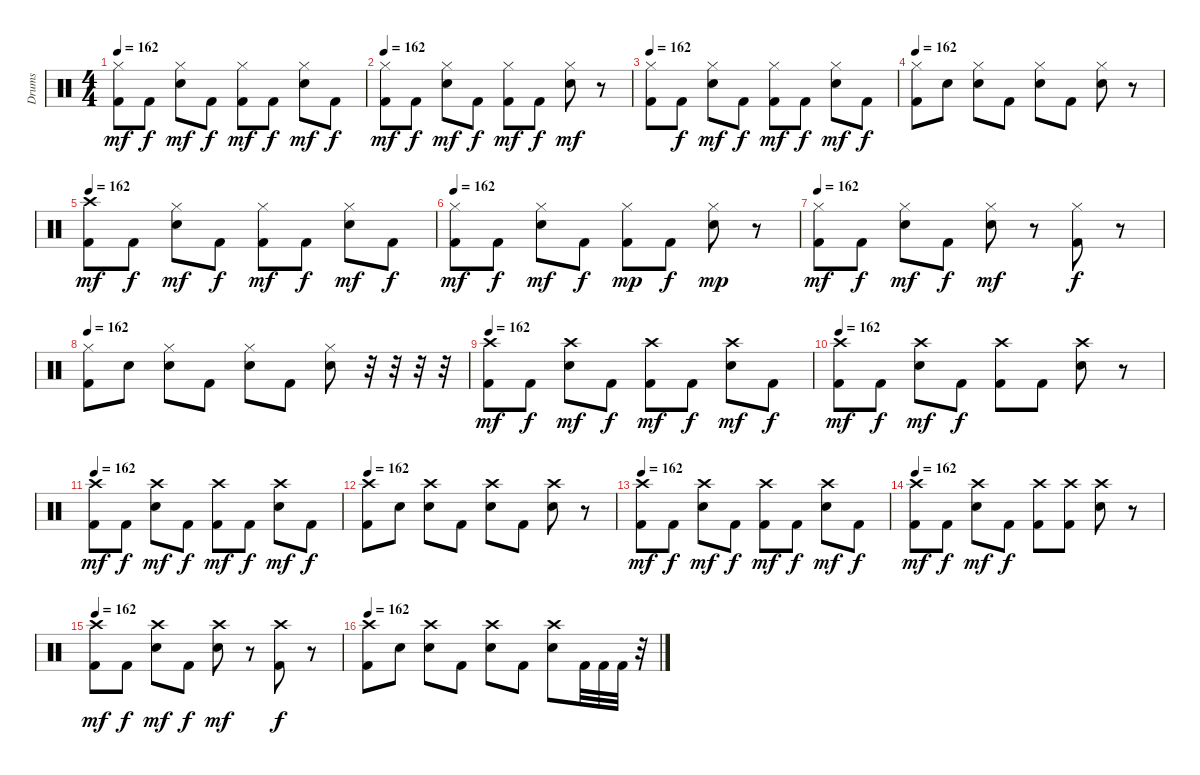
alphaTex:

\track ("Drums" "Drums") {instrument percussion}
\staff {score}
\articulation defaults
\ts (4 4)
\tempo 162
\clef neutral
\ks c
("Hi-Hat (closed)" "Kick (hit) 2").8{dy mf} "Kick (hit) 2".8{dy f} ("Hi-Hat (closed)" "Electric Snare (hit)").8{dy mf} "Kick (hit) 2".8{dy f} ("Hi-Hat (closed)" "Kick (hit) 2").8{dy mf} "Kick (hit) 2".8{dy f} ("Hi-Hat (closed)" "Electric Snare (hit)").8{dy mf} "Kick (hit) 2".8{dy f} |
\tempo 162
("Hi-Hat (closed)" "Kick (hit) 2").8{dy mf} "Kick (hit) 2".8{dy f} ("Hi-Hat (closed)" "Electric Snare (hit)").8{dy mf} "Kick (hit) 2".8{dy f} ("Hi-Hat (closed)" "Kick (hit) 2").8{dy mf} "Kick (hit) 2".8{dy f} ("Hi-Hat (closed)" "Electric Snare (hit)").8{dy mf} r.8 |
\tempo 162
("Hi-Hat (closed)" "Kick (hit) 2").8 "Kick (hit) 2".8{dy f} ("Hi-Hat (closed)" "Electric Snare (hit)").8{dy mf} "Kick (hit) 2".8{dy f} ("Hi-Hat (closed)" "Kick (hit) 2").8{dy mf} "Kick (hit) 2".8{dy f} ("Hi-Hat (closed)" "Electric Snare (hit)").8{dy mf} "Kick (hit) 2".8{dy f} |
\tempo 162
("Hi-Hat (closed)" "Kick (hit) 2").8 "Electric Snare (hit)".8 ("Hi-Hat (closed)" "Electric Snare (hit)").8 "Kick (hit) 2".8 ("Hi-Hat (closed)" "Electric Snare (hit)").8 "Kick (hit) 2".8 ("Hi-Hat (closed)" "Electric Snare (hit)").8 r.8 |
\tempo 162
("Crash high (hit)" "Kick (hit) 2").8{dy mf} "Kick (hit) 2".8{dy f} ("Hi-Hat (closed)" "Electric Snare (hit)").8{dy mf} "Kick (hit) 2".8{dy f} ("Hi-Hat (closed)" "Kick (hit) 2").8{dy mf} "Kick (hit) 2".8{dy f} ("Hi-Hat (closed)" "Electric Snare (hit)").8{dy mf} "Kick (hit) 2".8{dy f} |
\tempo 162
("Hi-Hat (closed)" "Kick (hit) 2").8{dy mf} "Kick (hit) 2".8{dy f} ("Hi-Hat (closed)" "Electric Snare (hit)").8{dy mf} "Kick (hit) 2".8{dy f} ("Hi-Hat (closed)" "Kick (hit) 2").8{dy mp} "Kick (hit) 2".8{dy f} ("Hi-Hat (closed)" "Electric Snare (hit)").8{dy mp} r.8 |
\tempo 162
("Hi-Hat (closed)" "Kick (hit) 2").8{dy mf} "Kick (hit) 2".8{dy f} ("Hi-Hat (closed)" "Electric Snare (hit)").8{dy mf} "Kick (hit) 2".8{dy f} ("Hi-Hat (closed)" "Electric Snare (hit)").8{dy mf} r.8 ("Hi-Hat (closed)" "Kick (hit) 2").8{dy f} r.8 |
\tempo 162
("Hi-Hat (closed)" "Kick (hit) 2").8 "Electric Snare (hit)".8 ("Hi-Hat (closed)" "Electric Snare (hit)").8 "Kick (hit) 2".8 ("Hi-Hat (closed)" "Electric Snare (hit)").8 "Kick (hit) 2".8 ("Hi-Hat (closed)" "Electric Snare (hit)").8 r.32 r.32 r.32 r.32 |
\tempo 162
("Crash high (hit)" "Kick (hit) 2").8{dy mf} "Kick (hit) 2".8{dy f} ("Crash high (hit)" "Electric Snare (hit)").8{dy mf} "Kick (hit) 2".8{dy f} ("Crash high (hit)" "Kick (hit) 2").8{dy mf} "Kick (hit) 2".8{dy f} ("Crash high (hit)" "Electric Snare (hit)").8{dy mf} "Kick (hit) 2".8{dy f} |
\tempo 162
("Crash high (hit)" "Kick (hit) 2").8{dy mf} "Kick (hit) 2".8{dy f} ("Crash high (hit)" "Electric Snare (hit)").8{dy mf} "Kick (hit) 2".8{dy f} ("Crash high (hit)" "Kick (hit) 2").8 "Kick (hit) 2".8 ("Crash high (hit)" "Electric Snare (hit)").8 r.8 |
\tempo 162
("Crash high (hit)" "Kick (hit) 2").8{dy mf} "Kick (hit) 2".8{dy f} ("Crash high (hit)" "Electric Snare (hit)").8{dy mf} "Kick (hit) 2".8{dy f} ("Crash high (hit)" "Kick (hit) 2").8{dy mf} "Kick (hit) 2".8{dy f} ("Crash high (hit)" "Electric Snare (hit)").8{dy mf} "Kick (hit) 2".8{dy f} |
\tempo 162
("Crash high (hit)" "Kick (hit) 2").8 "Electric Snare (hit)".8 ("Crash high (hit)" "Electric Snare (hit)").8 "Kick (hit) 2".8 ("Crash high (hit)" "Electric Snare (hit)").8 "Kick (hit) 2".8 ("Crash high (hit)" "Electric Snare (hit)").8 r.8 |
\tempo 162
("Crash high (hit)" "Kick (hit) 2").8{dy mf} "Kick (hit) 2".8{dy f} ("Crash high (hit)" "Electric Snare (hit)").8{dy mf} "Kick (hit) 2".8{dy f} ("Crash high (hit)" "Kick (hit) 2").8{dy mf} "Kick (hit) 2".8{dy f} ("Crash high (hit)" "Electric Snare (hit)").8{dy mf} "Kick (hit) 2".8{dy f} |
\tempo 162
("Crash high (hit)" "Kick (hit) 2").8{dy mf} "Kick (hit) 2".8{dy f} ("Crash high (hit)" "Electric Snare (hit)").8{dy mf} "Kick (hit) 2".8{dy f} ("Crash high (hit)" "Kick (hit) 2").8 ("Crash high (hit)" "Kick (hit) 2").8 ("Crash high (hit)" "Electric Snare (hit)").8 r.8 |
\tempo 162
("Crash high (hit)" "Kick (hit) 2").8{dy mf} "Kick (hit) 2".8{dy f} ("Crash high (hit)" "Electric Snare (hit)").8{dy mf} "Kick (hit) 2".8{dy f} ("Crash high (hit)" "Electric Snare (hit)").8{dy mf} r.8 ("Crash high (hit)" "Kick (hit) 2").8{dy f} r.8 |
\tempo 162
("Crash high (hit)" "Kick (hit) 2").8 "Electric Snare (hit)".8 ("Crash high (hit)" "Electric Snare (hit)").8 "Kick (hit) 2".8 ("Crash high (hit)" "Electric Snare (hit)").8 "Kick (hit) 2".8 ("Crash high (hit)" "Electric Snare (hit)").8 "Kick (hit) 2".32 "Kick (hit) 2".32 "Kick (hit) 2".32 r.32
